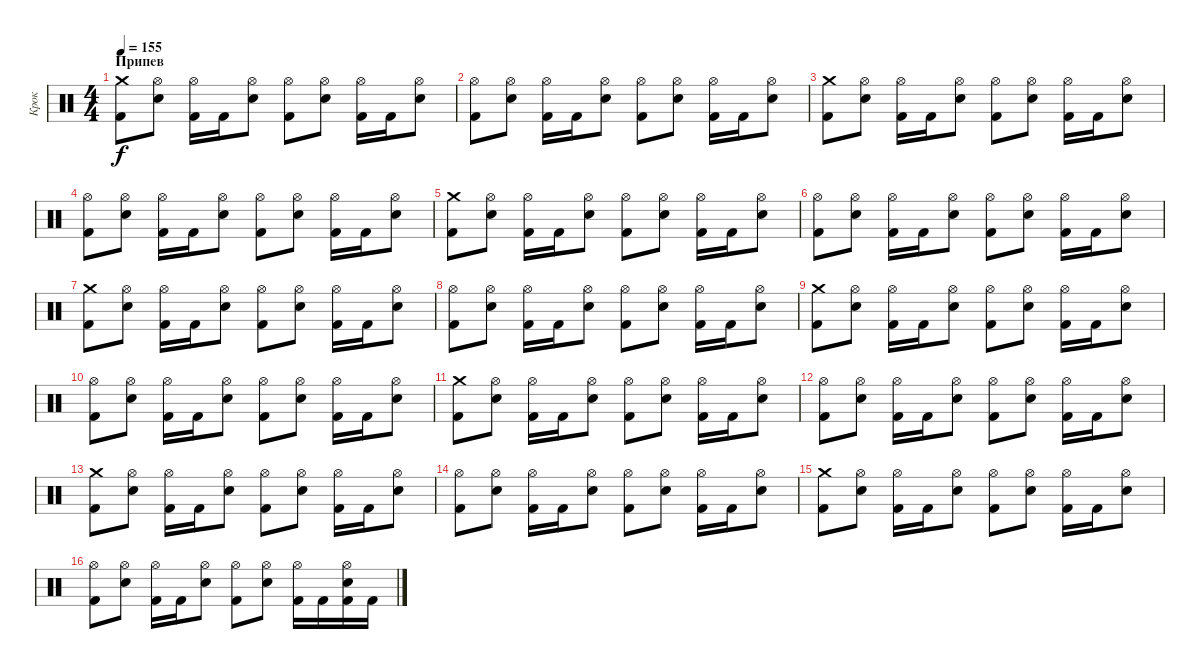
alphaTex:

\track ("Крок" "Крок") {instrument percussion}
\staff {score}
\articulation defaults
\ts (4 4)
\section ("" "Припев")
\tempo 155
\clef neutral
\ks c
("Crash medium (hit)" "Kick (hit) 2").8{dy f} ("Hi-Hat (open)" "Electric Snare (hit)").8 ("Hi-Hat (open)" "Kick (hit) 2").16 "Kick (hit) 2".16 ("Hi-Hat (open)" "Electric Snare (hit)").8 ("Hi-Hat (open)" "Kick (hit) 2").8 ("Hi-Hat (open)" "Electric Snare (hit)").8 ("Hi-Hat (open)" "Kick (hit) 2").16 "Kick (hit) 2".16 ("Hi-Hat (open)" "Electric Snare (hit)").8 |
("Hi-Hat (open)" "Kick (hit) 2").8 ("Hi-Hat (open)" "Electric Snare (hit)").8 ("Hi-Hat (open)" "Kick (hit) 2").16 "Kick (hit) 2".16 ("Hi-Hat (open)" "Electric Snare (hit)").8 ("Hi-Hat (open)" "Kick (hit) 2").8 ("Hi-Hat (open)" "Electric Snare (hit)").8 ("Hi-Hat (open)" "Kick (hit) 2").16 "Kick (hit) 2".16 ("Hi-Hat (open)" "Electric Snare (hit)").8 |
("Crash medium (hit)" "Kick (hit) 2").8 ("Hi-Hat (open)" "Electric Snare (hit)").8 ("Hi-Hat (open)" "Kick (hit) 2").16 "Kick (hit) 2".16 ("Hi-Hat (open)" "Electric Snare (hit)").8 ("Hi-Hat (open)" "Kick (hit) 2").8 ("Hi-Hat (open)" "Electric Snare (hit)").8 ("Hi-Hat (open)" "Kick (hit) 2").16 "Kick (hit) 2".16 ("Hi-Hat (open)" "Electric Snare (hit)").8 |
("Hi-Hat (open)" "Kick (hit) 2").8 ("Hi-Hat (open)" "Electric Snare (hit)").8 ("Hi-Hat (open)" "Kick (hit) 2").16 "Kick (hit) 2".16 ("Hi-Hat (open)" "Electric Snare (hit)").8 ("Hi-Hat (open)" "Kick (hit) 2").8 ("Hi-Hat (open)" "Electric Snare (hit)").8 ("Hi-Hat (open)" "Kick (hit) 2").16 "Kick (hit) 2".16 ("Hi-Hat (open)" "Electric Snare (hit)").8 |
("Crash medium (hit)" "Kick (hit) 2").8 ("Hi-Hat (open)" "Electric Snare (hit)").8 ("Hi-Hat (open)" "Kick (hit) 2").16 "Kick (hit) 2".16 ("Hi-Hat (open)" "Electric Snare (hit)").8 ("Hi-Hat (open)" "Kick (hit) 2").8 ("Hi-Hat (open)" "Electric Snare (hit)").8 ("Hi-Hat (open)" "Kick (hit) 2").16 "Kick (hit) 2".16 ("Hi-Hat (open)" "Electric Snare (hit)").8 |
("Hi-Hat (open)" "Kick (hit) 2").8 ("Hi-Hat (open)" "Electric Snare (hit)").8 ("Hi-Hat (open)" "Kick (hit) 2").16 "Kick (hit) 2".16 ("Hi-Hat (open)" "Electric Snare (hit)").8 ("Hi-Hat (open)" "Kick (hit) 2").8 ("Hi-Hat (open)" "Electric Snare (hit)").8 ("Hi-Hat (open)" "Kick (hit) 2").16 "Kick (hit) 2".16 ("Hi-Hat (open)" "Electric Snare (hit)").8 |
("Crash medium (hit)" "Kick (hit) 2").8 ("Hi-Hat (open)" "Electric Snare (hit)").8 ("Hi-Hat (open)" "Kick (hit) 2").16 "Kick (hit) 2".16 ("Hi-Hat (open)" "Electric Snare (hit)").8 ("Hi-Hat (open)" "Kick (hit) 2").8 ("Hi-Hat (open)" "Electric Snare (hit)").8 ("Hi-Hat (open)" "Kick (hit) 2").16 "Kick (hit) 2".16 ("Hi-Hat (open)" "Electric Snare (hit)").8 |
("Hi-Hat (open)" "Kick (hit) 2").8 ("Hi-Hat (open)" "Electric Snare (hit)").8 ("Hi-Hat (open)" "Kick (hit) 2").16 "Kick (hit) 2".16 ("Hi-Hat (open)" "Electric Snare (hit)").8 ("Hi-Hat (open)" "Kick (hit) 2").8 ("Hi-Hat (open)" "Electric Snare (hit)").8 ("Hi-Hat (open)" "Kick (hit) 2").16 "Kick (hit) 2".16 ("Hi-Hat (open)" "Electric Snare (hit)").8 |
("Crash medium (hit)" "Kick (hit) 2").8 ("Hi-Hat (open)" "Electric Snare (hit)").8 ("Hi-Hat (open)" "Kick (hit) 2").16 "Kick (hit) 2".16 ("Hi-Hat (open)" "Electric Snare (hit)").8 ("Hi-Hat (open)" "Kick (hit) 2").8 ("Hi-Hat (open)" "Electric Snare (hit)").8 ("Hi-Hat (open)" "Kick (hit) 2").16 "Kick (hit) 2".16 ("Hi-Hat (open)" "Electric Snare (hit)").8 |
("Hi-Hat (open)" "Kick (hit) 2").8 ("Hi-Hat (open)" "Electric Snare (hit)").8 ("Hi-Hat (open)" "Kick (hit) 2").16 "Kick (hit) 2".16 ("Hi-Hat (open)" "Electric Snare (hit)").8 ("Hi-Hat (open)" "Kick (hit) 2").8 ("Hi-Hat (open)" "Electric Snare (hit)").8 ("Hi-Hat (open)" "Kick (hit) 2").16 "Kick (hit) 2".16 ("Hi-Hat (open)" "Electric Snare (hit)").8 |
("Crash medium (hit)" "Kick (hit) 2").8 ("Hi-Hat (open)" "Electric Snare (hit)").8 ("Hi-Hat (open)" "Kick (hit) 2").16 "Kick (hit) 2".16 ("Hi-Hat (open)" "Electric Snare (hit)").8 ("Hi-Hat (open)" "Kick (hit) 2").8 ("Hi-Hat (open)" "Electric Snare (hit)").8 ("Hi-Hat (open)" "Kick (hit) 2").16 "Kick (hit) 2".16 ("Hi-Hat (open)" "Electric Snare (hit)").8 |
("Hi-Hat (open)" "Kick (hit) 2").8 ("Hi-Hat (open)" "Electric Snare (hit)").8 ("Hi-Hat (open)" "Kick (hit) 2").16 "Kick (hit) 2".16 ("Hi-Hat (open)" "Electric Snare (hit)").8 ("Hi-Hat (open)" "Kick (hit) 2").8 ("Hi-Hat (open)" "Electric Snare (hit)").8 ("Hi-Hat (open)" "Kick (hit) 2").16 "Kick (hit) 2".16 ("Hi-Hat (open)" "Electric Snare (hit)").8 |
("Crash medium (hit)" "Kick (hit) 2").8 ("Hi-Hat (open)" "Electric Snare (hit)").8 ("Hi-Hat (open)" "Kick (hit) 2").16 "Kick (hit) 2".16 ("Hi-Hat (open)" "Electric Snare (hit)").8 ("Hi-Hat (open)" "Kick (hit) 2").8 ("Hi-Hat (open)" "Electric Snare (hit)").8 ("Hi-Hat (open)" "Kick (hit) 2").16 "Kick (hit) 2".16 ("Hi-Hat (open)" "Electric Snare (hit)").8 |
("Hi-Hat (open)" "Kick (hit) 2").8 ("Hi-Hat (open)" "Electric Snare (hit)").8 ("Hi-Hat (open)" "Kick (hit) 2").16 "Kick (hit) 2".16 ("Hi-Hat (open)" "Electric Snare (hit)").8 ("Hi-Hat (open)" "Kick (hit) 2").8 ("Hi-Hat (open)" "Electric Snare (hit)").8 ("Hi-Hat (open)" "Kick (hit) 2").16 "Kick (hit) 2".16 ("Hi-Hat (open)" "Electric Snare (hit)").8 |
("Crash medium (hit)" "Kick (hit) 2").8 ("Hi-Hat (open)" "Electric Snare (hit)").8 ("Hi-Hat (open)" "Kick (hit) 2").16 "Kick (hit) 2".16 ("Hi-Hat (open)" "Electric Snare (hit)").8 ("Hi-Hat (open)" "Kick (hit) 2").8 ("Hi-Hat (open)" "Electric Snare (hit)").8 ("Hi-Hat (open)" "Kick (hit) 2").16 "Kick (hit) 2".16 ("Hi-Hat (open)" "Electric Snare (hit)").8 |
("Hi-Hat (open)" "Kick (hit) 2").8 ("Hi-Hat (open)" "Electric Snare (hit)").8 ("Hi-Hat (open)" "Kick (hit) 2").16 "Kick (hit) 2".16 ("Hi-Hat (open)" "Electric Snare (hit)").8 ("Hi-Hat (open)" "Kick (hit) 2").8 ("Hi-Hat (open)" "Electric Snare (hit)").8 ("Hi-Hat (open)" "Kick (hit) 2").16 "Kick (hit) 2".16 ("Hi-Hat (open)" "Electric Snare (hit)" "Kick (hit) 2").16 "Kick (hit) 2".16
